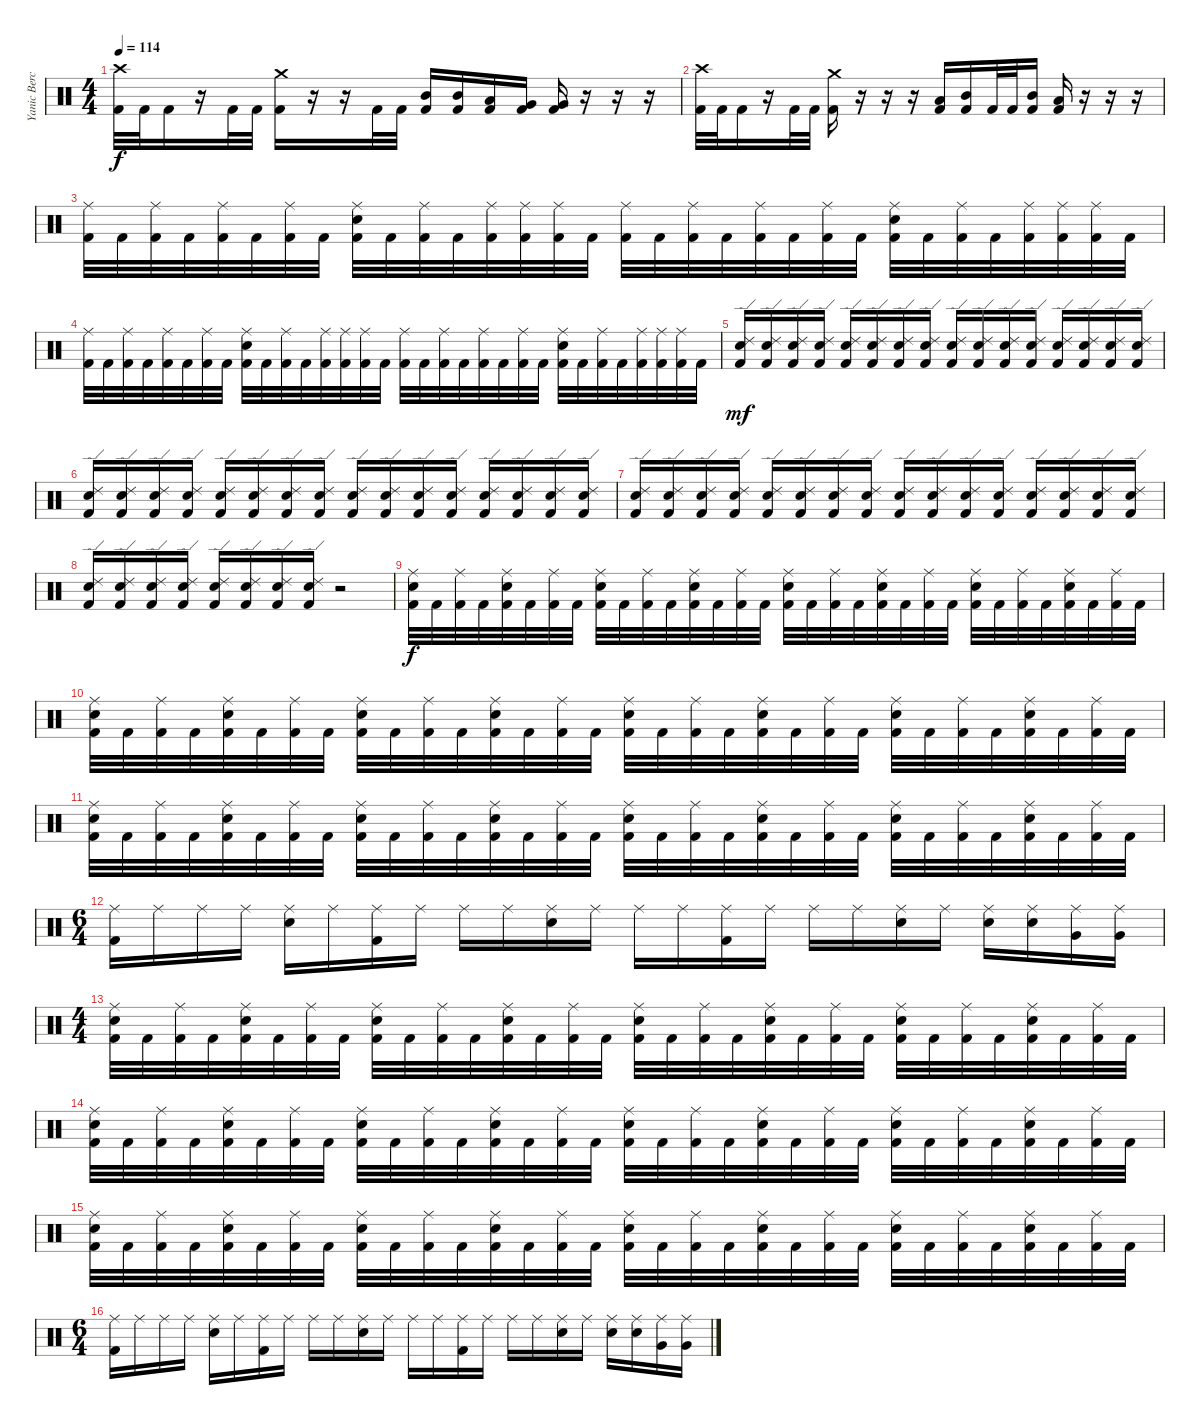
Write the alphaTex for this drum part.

\track ("Yanic Bercier" "Yanic Berc") {instrument percussion}
\staff {score}
\articulation defaults
\ts (4 4)
\tempo 114
\clef neutral
\ks c
("Crash high (hit)" "Kick (hit) 2").32{dy f} "Kick (hit) 2".32 "Kick (hit) 2".16 r.16 "Kick (hit) 2".32 "Kick (hit) 2".32 ("Crash medium (hit)" "Kick (hit) 2").16 r.16 r.16 "Kick (hit) 2".32 "Kick (hit) 2".32 ("Mid Tom (hit)" "Kick (hit) 2").16 ("Mid Tom (hit)" "Kick (hit) 2").16 ("Low Tom (hit)" "Kick (hit) 2").16 ("Very Low Tom (hit)" "Kick (hit) 2").16 ("Very Low Tom (hit)" "Kick (hit) 2").16 r.16 r.16 r.16 |
("Crash high (hit)" "Kick (hit) 2").32 "Kick (hit) 2".32 "Kick (hit) 2".16 r.16 "Kick (hit) 2".32 "Kick (hit) 2".32 ("Crash medium (hit)" "Kick (hit) 2").16 r.16 r.16 r.16 ("Low Tom (hit)" "Kick (hit) 2").16 ("Mid Tom (hit)" "Kick (hit) 2").16 "Kick (hit) 2".32 "Kick (hit) 2".32 ("Mid Tom (hit)" "Kick (hit) 2").16 ("Low Tom (hit)" "Kick (hit) 2").16 r.16 r.16 r.16 |
("Ride (middle)" "Kick (hit) 2").32 "Kick (hit) 2".32 ("Ride (middle)" "Kick (hit) 2").32 "Kick (hit) 2".32 ("Ride (middle)" "Kick (hit) 2").32 "Kick (hit) 2".32 ("Ride (middle)" "Kick (hit) 2").32 "Kick (hit) 2".32 ("Ride (middle)" "Electric Snare (hit)" "Kick (hit) 2").32 "Kick (hit) 2".32 ("Ride (middle)" "Kick (hit) 2").32 "Kick (hit) 2".32 ("Ride (middle)" "Kick (hit) 2").32 ("Ride (middle)" "Kick (hit) 2").32 ("Ride (middle)" "Kick (hit) 2").32 "Kick (hit) 2".32 ("Ride (middle)" "Kick (hit) 2").32 "Kick (hit) 2".32 ("Ride (middle)" "Kick (hit) 2").32 "Kick (hit) 2".32 ("Ride (middle)" "Kick (hit) 2").32 "Kick (hit) 2".32 ("Ride (middle)" "Kick (hit) 2").32 "Kick (hit) 2".32 ("Ride (middle)" "Electric Snare (hit)" "Kick (hit) 2").32 "Kick (hit) 2".32 ("Ride (middle)" "Kick (hit) 2").32 "Kick (hit) 2".32 ("Ride (middle)" "Kick (hit) 2").32 ("Ride (middle)" "Kick (hit) 2").32 ("Ride (middle)" "Kick (hit) 2").32 "Kick (hit) 2".32 |
("Ride (middle)" "Kick (hit) 2").32 "Kick (hit) 2".32 ("Ride (middle)" "Kick (hit) 2").32 "Kick (hit) 2".32 ("Ride (middle)" "Kick (hit) 2").32 "Kick (hit) 2".32 ("Ride (middle)" "Kick (hit) 2").32 "Kick (hit) 2".32 ("Ride (middle)" "Electric Snare (hit)" "Kick (hit) 2").32 "Kick (hit) 2".32 ("Ride (middle)" "Kick (hit) 2").32 "Kick (hit) 2".32 ("Ride (middle)" "Kick (hit) 2").32 ("Ride (middle)" "Kick (hit) 2").32 ("Ride (middle)" "Kick (hit) 2").32 "Kick (hit) 2".32 ("Ride (middle)" "Kick (hit) 2").32 "Kick (hit) 2".32 ("Ride (middle)" "Kick (hit) 2").32 "Kick (hit) 2".32 ("Ride (middle)" "Kick (hit) 2").32 "Kick (hit) 2".32 ("Ride (middle)" "Kick (hit) 2").32 "Kick (hit) 2".32 ("Ride (middle)" "Electric Snare (hit)" "Kick (hit) 2").32 "Kick (hit) 2".32 ("Ride (middle)" "Kick (hit) 2").32 "Kick (hit) 2".32 ("Ride (middle)" "Kick (hit) 2").32 ("Ride (middle)" "Kick (hit) 2").32 ("Ride (middle)" "Kick (hit) 2").32 "Kick (hit) 2".32 |
("Ride (edge) 2" "Electric Snare (hit)" "Kick (hit) 2").16{dy mf} ("Ride (edge) 2" "Electric Snare (hit)" "Kick (hit) 2").16 ("Ride (edge) 2" "Electric Snare (hit)" "Kick (hit) 2").16 ("Ride (edge) 2" "Electric Snare (hit)" "Kick (hit) 2").16 ("Ride (edge) 2" "Electric Snare (hit)" "Kick (hit) 2").16 ("Ride (edge) 2" "Electric Snare (hit)" "Kick (hit) 2").16 ("Ride (edge) 2" "Electric Snare (hit)" "Kick (hit) 2").16 ("Ride (edge) 2" "Electric Snare (hit)" "Kick (hit) 2").16 ("Ride (edge) 2" "Electric Snare (hit)" "Kick (hit) 2").16 ("Ride (edge) 2" "Electric Snare (hit)" "Kick (hit) 2").16 ("Ride (edge) 2" "Electric Snare (hit)" "Kick (hit) 2").16 ("Ride (edge) 2" "Electric Snare (hit)" "Kick (hit) 2").16 ("Ride (edge) 2" "Electric Snare (hit)" "Kick (hit) 2").16 ("Ride (edge) 2" "Electric Snare (hit)" "Kick (hit) 2").16 ("Ride (edge) 2" "Electric Snare (hit)" "Kick (hit) 2").16 ("Ride (edge) 2" "Electric Snare (hit)" "Kick (hit) 2").16 |
("Ride (edge) 2" "Electric Snare (hit)" "Kick (hit) 2").16 ("Ride (edge) 2" "Electric Snare (hit)" "Kick (hit) 2").16 ("Ride (edge) 2" "Electric Snare (hit)" "Kick (hit) 2").16 ("Ride (edge) 2" "Electric Snare (hit)" "Kick (hit) 2").16 ("Ride (edge) 2" "Electric Snare (hit)" "Kick (hit) 2").16 ("Ride (edge) 2" "Electric Snare (hit)" "Kick (hit) 2").16 ("Ride (edge) 2" "Electric Snare (hit)" "Kick (hit) 2").16 ("Ride (edge) 2" "Electric Snare (hit)" "Kick (hit) 2").16 ("Ride (edge) 2" "Electric Snare (hit)" "Kick (hit) 2").16 ("Ride (edge) 2" "Electric Snare (hit)" "Kick (hit) 2").16 ("Ride (edge) 2" "Electric Snare (hit)" "Kick (hit) 2").16 ("Ride (edge) 2" "Electric Snare (hit)" "Kick (hit) 2").16 ("Ride (edge) 2" "Electric Snare (hit)" "Kick (hit) 2").16 ("Ride (edge) 2" "Electric Snare (hit)" "Kick (hit) 2").16 ("Ride (edge) 2" "Electric Snare (hit)" "Kick (hit) 2").16 ("Ride (edge) 2" "Electric Snare (hit)" "Kick (hit) 2").16 |
("Ride (edge) 2" "Electric Snare (hit)" "Kick (hit) 2").16 ("Ride (edge) 2" "Electric Snare (hit)" "Kick (hit) 2").16 ("Ride (edge) 2" "Electric Snare (hit)" "Kick (hit) 2").16 ("Ride (edge) 2" "Electric Snare (hit)" "Kick (hit) 2").16 ("Ride (edge) 2" "Electric Snare (hit)" "Kick (hit) 2").16 ("Ride (edge) 2" "Electric Snare (hit)" "Kick (hit) 2").16 ("Ride (edge) 2" "Electric Snare (hit)" "Kick (hit) 2").16 ("Ride (edge) 2" "Electric Snare (hit)" "Kick (hit) 2").16 ("Ride (edge) 2" "Electric Snare (hit)" "Kick (hit) 2").16 ("Ride (edge) 2" "Electric Snare (hit)" "Kick (hit) 2").16 ("Ride (edge) 2" "Electric Snare (hit)" "Kick (hit) 2").16 ("Ride (edge) 2" "Electric Snare (hit)" "Kick (hit) 2").16 ("Ride (edge) 2" "Electric Snare (hit)" "Kick (hit) 2").16 ("Ride (edge) 2" "Electric Snare (hit)" "Kick (hit) 2").16 ("Ride (edge) 2" "Electric Snare (hit)" "Kick (hit) 2").16 ("Ride (edge) 2" "Electric Snare (hit)" "Kick (hit) 2").16 |
("Ride (edge) 2" "Electric Snare (hit)" "Kick (hit) 2").16 ("Ride (edge) 2" "Electric Snare (hit)" "Kick (hit) 2").16 ("Ride (edge) 2" "Electric Snare (hit)" "Kick (hit) 2").16 ("Ride (edge) 2" "Electric Snare (hit)" "Kick (hit) 2").16 ("Ride (edge) 2" "Electric Snare (hit)" "Kick (hit) 2").16 ("Ride (edge) 2" "Electric Snare (hit)" "Kick (hit) 2").16 ("Ride (edge) 2" "Electric Snare (hit)" "Kick (hit) 2").16 ("Ride (edge) 2" "Electric Snare (hit)" "Kick (hit) 2").16 r.2 |
("Ride (middle)" "Electric Snare (hit)" "Kick (hit) 2").32{dy f} "Kick (hit) 2".32 ("Ride (middle)" "Kick (hit) 2").32 "Kick (hit) 2".32 ("Ride (middle)" "Electric Snare (hit)" "Kick (hit) 2").32 "Kick (hit) 2".32 ("Ride (middle)" "Kick (hit) 2").32 "Kick (hit) 2".32 ("Ride (middle)" "Electric Snare (hit)" "Kick (hit) 2").32 "Kick (hit) 2".32 ("Ride (middle)" "Kick (hit) 2").32 "Kick (hit) 2".32 ("Ride (middle)" "Electric Snare (hit)" "Kick (hit) 2").32 "Kick (hit) 2".32 ("Ride (middle)" "Kick (hit) 2").32 "Kick (hit) 2".32 ("Ride (middle)" "Electric Snare (hit)" "Kick (hit) 2").32 "Kick (hit) 2".32 ("Ride (middle)" "Kick (hit) 2").32 "Kick (hit) 2".32 ("Ride (middle)" "Electric Snare (hit)" "Kick (hit) 2").32 "Kick (hit) 2".32 ("Ride (middle)" "Kick (hit) 2").32 "Kick (hit) 2".32 ("Ride (middle)" "Electric Snare (hit)" "Kick (hit) 2").32 "Kick (hit) 2".32 ("Ride (middle)" "Kick (hit) 2").32 "Kick (hit) 2".32 ("Ride (middle)" "Electric Snare (hit)" "Kick (hit) 2").32 "Kick (hit) 2".32 ("Ride (middle)" "Kick (hit) 2").32 "Kick (hit) 2".32 |
("Ride (middle)" "Electric Snare (hit)" "Kick (hit) 2").32 "Kick (hit) 2".32 ("Ride (middle)" "Kick (hit) 2").32 "Kick (hit) 2".32 ("Ride (middle)" "Electric Snare (hit)" "Kick (hit) 2").32 "Kick (hit) 2".32 ("Ride (middle)" "Kick (hit) 2").32 "Kick (hit) 2".32 ("Ride (middle)" "Electric Snare (hit)" "Kick (hit) 2").32 "Kick (hit) 2".32 ("Ride (middle)" "Kick (hit) 2").32 "Kick (hit) 2".32 ("Ride (middle)" "Electric Snare (hit)" "Kick (hit) 2").32 "Kick (hit) 2".32 ("Ride (middle)" "Kick (hit) 2").32 "Kick (hit) 2".32 ("Ride (middle)" "Electric Snare (hit)" "Kick (hit) 2").32 "Kick (hit) 2".32 ("Ride (middle)" "Kick (hit) 2").32 "Kick (hit) 2".32 ("Ride (middle)" "Electric Snare (hit)" "Kick (hit) 2").32 "Kick (hit) 2".32 ("Ride (middle)" "Kick (hit) 2").32 "Kick (hit) 2".32 ("Ride (middle)" "Electric Snare (hit)" "Kick (hit) 2").32 "Kick (hit) 2".32 ("Ride (middle)" "Kick (hit) 2").32 "Kick (hit) 2".32 ("Ride (middle)" "Electric Snare (hit)" "Kick (hit) 2").32 "Kick (hit) 2".32 ("Ride (middle)" "Kick (hit) 2").32 "Kick (hit) 2".32 |
("Ride (middle)" "Electric Snare (hit)" "Kick (hit) 2").32 "Kick (hit) 2".32 ("Ride (middle)" "Kick (hit) 2").32 "Kick (hit) 2".32 ("Ride (middle)" "Electric Snare (hit)" "Kick (hit) 2").32 "Kick (hit) 2".32 ("Ride (middle)" "Kick (hit) 2").32 "Kick (hit) 2".32 ("Ride (middle)" "Electric Snare (hit)" "Kick (hit) 2").32 "Kick (hit) 2".32 ("Ride (middle)" "Kick (hit) 2").32 "Kick (hit) 2".32 ("Ride (middle)" "Electric Snare (hit)" "Kick (hit) 2").32 "Kick (hit) 2".32 ("Ride (middle)" "Kick (hit) 2").32 "Kick (hit) 2".32 ("Ride (middle)" "Electric Snare (hit)" "Kick (hit) 2").32 "Kick (hit) 2".32 ("Ride (middle)" "Kick (hit) 2").32 "Kick (hit) 2".32 ("Ride (middle)" "Electric Snare (hit)" "Kick (hit) 2").32 "Kick (hit) 2".32 ("Ride (middle)" "Kick (hit) 2").32 "Kick (hit) 2".32 ("Ride (middle)" "Electric Snare (hit)" "Kick (hit) 2").32 "Kick (hit) 2".32 ("Ride (middle)" "Kick (hit) 2").32 "Kick (hit) 2".32 ("Ride (middle)" "Electric Snare (hit)" "Kick (hit) 2").32 "Kick (hit) 2".32 ("Ride (middle)" "Kick (hit) 2").32 "Kick (hit) 2".32 |
\ts (6 4)
("Ride (middle)" "Kick (hit) 2").16 "Ride (middle)".16 "Ride (middle)".16 "Ride (middle)".16 ("Ride (middle)" "Electric Snare (hit)").16 "Ride (middle)".16 ("Ride (middle)" "Kick (hit) 2").16 "Ride (middle)".16 "Ride (middle)".16 "Ride (middle)".16 ("Ride (middle)" "Electric Snare (hit)").16 "Ride (middle)".16 "Ride (middle)".16 "Ride (middle)".16 ("Ride (middle)" "Kick (hit) 2").16 "Ride (middle)".16 "Ride (middle)".16 "Ride (middle)".16 ("Ride (middle)" "Electric Snare (hit)").16 "Ride (middle)".16 ("Ride (middle)" "Electric Snare (hit)").16 ("Ride (middle)" "Electric Snare (hit)").16 ("Ride (middle)" "Very Low Tom (hit)").16 ("Ride (middle)" "Very Low Tom (hit)").16 |
\ts (4 4)
("Ride (middle)" "Electric Snare (hit)" "Kick (hit) 2").32 "Kick (hit) 2".32 ("Ride (middle)" "Kick (hit) 2").32 "Kick (hit) 2".32 ("Ride (middle)" "Electric Snare (hit)" "Kick (hit) 2").32 "Kick (hit) 2".32 ("Ride (middle)" "Kick (hit) 2").32 "Kick (hit) 2".32 ("Ride (middle)" "Electric Snare (hit)" "Kick (hit) 2").32 "Kick (hit) 2".32 ("Ride (middle)" "Kick (hit) 2").32 "Kick (hit) 2".32 ("Ride (middle)" "Electric Snare (hit)" "Kick (hit) 2").32 "Kick (hit) 2".32 ("Ride (middle)" "Kick (hit) 2").32 "Kick (hit) 2".32 ("Ride (middle)" "Electric Snare (hit)" "Kick (hit) 2").32 "Kick (hit) 2".32 ("Ride (middle)" "Kick (hit) 2").32 "Kick (hit) 2".32 ("Ride (middle)" "Electric Snare (hit)" "Kick (hit) 2").32 "Kick (hit) 2".32 ("Ride (middle)" "Kick (hit) 2").32 "Kick (hit) 2".32 ("Ride (middle)" "Electric Snare (hit)" "Kick (hit) 2").32 "Kick (hit) 2".32 ("Ride (middle)" "Kick (hit) 2").32 "Kick (hit) 2".32 ("Ride (middle)" "Electric Snare (hit)" "Kick (hit) 2").32 "Kick (hit) 2".32 ("Ride (middle)" "Kick (hit) 2").32 "Kick (hit) 2".32 |
("Ride (middle)" "Electric Snare (hit)" "Kick (hit) 2").32 "Kick (hit) 2".32 ("Ride (middle)" "Kick (hit) 2").32 "Kick (hit) 2".32 ("Ride (middle)" "Electric Snare (hit)" "Kick (hit) 2").32 "Kick (hit) 2".32 ("Ride (middle)" "Kick (hit) 2").32 "Kick (hit) 2".32 ("Ride (middle)" "Electric Snare (hit)" "Kick (hit) 2").32 "Kick (hit) 2".32 ("Ride (middle)" "Kick (hit) 2").32 "Kick (hit) 2".32 ("Ride (middle)" "Electric Snare (hit)" "Kick (hit) 2").32 "Kick (hit) 2".32 ("Ride (middle)" "Kick (hit) 2").32 "Kick (hit) 2".32 ("Ride (middle)" "Electric Snare (hit)" "Kick (hit) 2").32 "Kick (hit) 2".32 ("Ride (middle)" "Kick (hit) 2").32 "Kick (hit) 2".32 ("Ride (middle)" "Electric Snare (hit)" "Kick (hit) 2").32 "Kick (hit) 2".32 ("Ride (middle)" "Kick (hit) 2").32 "Kick (hit) 2".32 ("Ride (middle)" "Electric Snare (hit)" "Kick (hit) 2").32 "Kick (hit) 2".32 ("Ride (middle)" "Kick (hit) 2").32 "Kick (hit) 2".32 ("Ride (middle)" "Electric Snare (hit)" "Kick (hit) 2").32 "Kick (hit) 2".32 ("Ride (middle)" "Kick (hit) 2").32 "Kick (hit) 2".32 |
("Ride (middle)" "Electric Snare (hit)" "Kick (hit) 2").32 "Kick (hit) 2".32 ("Ride (middle)" "Kick (hit) 2").32 "Kick (hit) 2".32 ("Ride (middle)" "Electric Snare (hit)" "Kick (hit) 2").32 "Kick (hit) 2".32 ("Ride (middle)" "Kick (hit) 2").32 "Kick (hit) 2".32 ("Ride (middle)" "Electric Snare (hit)" "Kick (hit) 2").32 "Kick (hit) 2".32 ("Ride (middle)" "Kick (hit) 2").32 "Kick (hit) 2".32 ("Ride (middle)" "Electric Snare (hit)" "Kick (hit) 2").32 "Kick (hit) 2".32 ("Ride (middle)" "Kick (hit) 2").32 "Kick (hit) 2".32 ("Ride (middle)" "Electric Snare (hit)" "Kick (hit) 2").32 "Kick (hit) 2".32 ("Ride (middle)" "Kick (hit) 2").32 "Kick (hit) 2".32 ("Ride (middle)" "Electric Snare (hit)" "Kick (hit) 2").32 "Kick (hit) 2".32 ("Ride (middle)" "Kick (hit) 2").32 "Kick (hit) 2".32 ("Ride (middle)" "Electric Snare (hit)" "Kick (hit) 2").32 "Kick (hit) 2".32 ("Ride (middle)" "Kick (hit) 2").32 "Kick (hit) 2".32 ("Ride (middle)" "Electric Snare (hit)" "Kick (hit) 2").32 "Kick (hit) 2".32 ("Ride (middle)" "Kick (hit) 2").32 "Kick (hit) 2".32 |
\ts (6 4)
("Ride (middle)" "Kick (hit) 2").16 "Ride (middle)".16 "Ride (middle)".16 "Ride (middle)".16 ("Ride (middle)" "Electric Snare (hit)").16 "Ride (middle)".16 ("Ride (middle)" "Kick (hit) 2").16 "Ride (middle)".16 "Ride (middle)".16 "Ride (middle)".16 ("Ride (middle)" "Electric Snare (hit)").16 "Ride (middle)".16 "Ride (middle)".16 "Ride (middle)".16 ("Ride (middle)" "Kick (hit) 2").16 "Ride (middle)".16 "Ride (middle)".16 "Ride (middle)".16 ("Ride (middle)" "Electric Snare (hit)").16 "Ride (middle)".16 ("Ride (middle)" "Electric Snare (hit)").16 ("Ride (middle)" "Electric Snare (hit)").16 ("Ride (middle)" "Very Low Tom (hit)").16 ("Ride (middle)" "Very Low Tom (hit)").16
